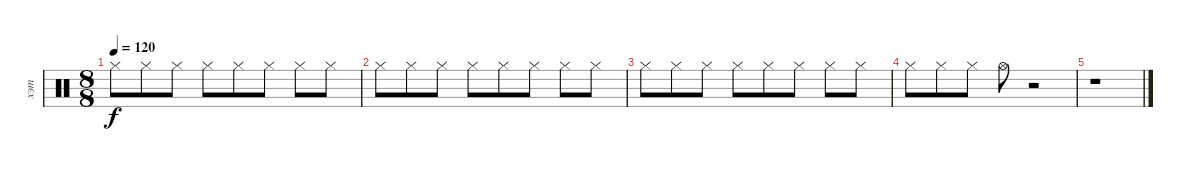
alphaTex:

\track ("хэт" "хэт") {instrument percussion}
\staff {score}
\articulation defaults
\ts (8 8)
\tempo 120
\clef neutral
\ks c "Hi-Hat (closed)".8{dy f} "Hi-Hat (closed)".8 "Hi-Hat (closed)".8 "Hi-Hat (closed)".8 "Hi-Hat (closed)".8 "Hi-Hat (closed)".8 "Hi-Hat (closed)".8 "Hi-Hat (closed)".8
|
"Hi-Hat (closed)".8 "Hi-Hat (closed)".8 "Hi-Hat (closed)".8 "Hi-Hat (closed)".8 "Hi-Hat (closed)".8 "Hi-Hat (closed)".8 "Hi-Hat (closed)".8 "Hi-Hat (closed)".8 |
"Hi-Hat (closed)".8 "Hi-Hat (closed)".8 "Hi-Hat (closed)".8 "Hi-Hat (closed)".8 "Hi-Hat (closed)".8 "Hi-Hat (closed)".8 "Hi-Hat (closed)".8 "Hi-Hat (closed)".8 |
"Hi-Hat (closed)".8 "Hi-Hat (closed)".8 "Hi-Hat (closed)".8 "Hi-Hat (open)".8 r.2 |
r.1
